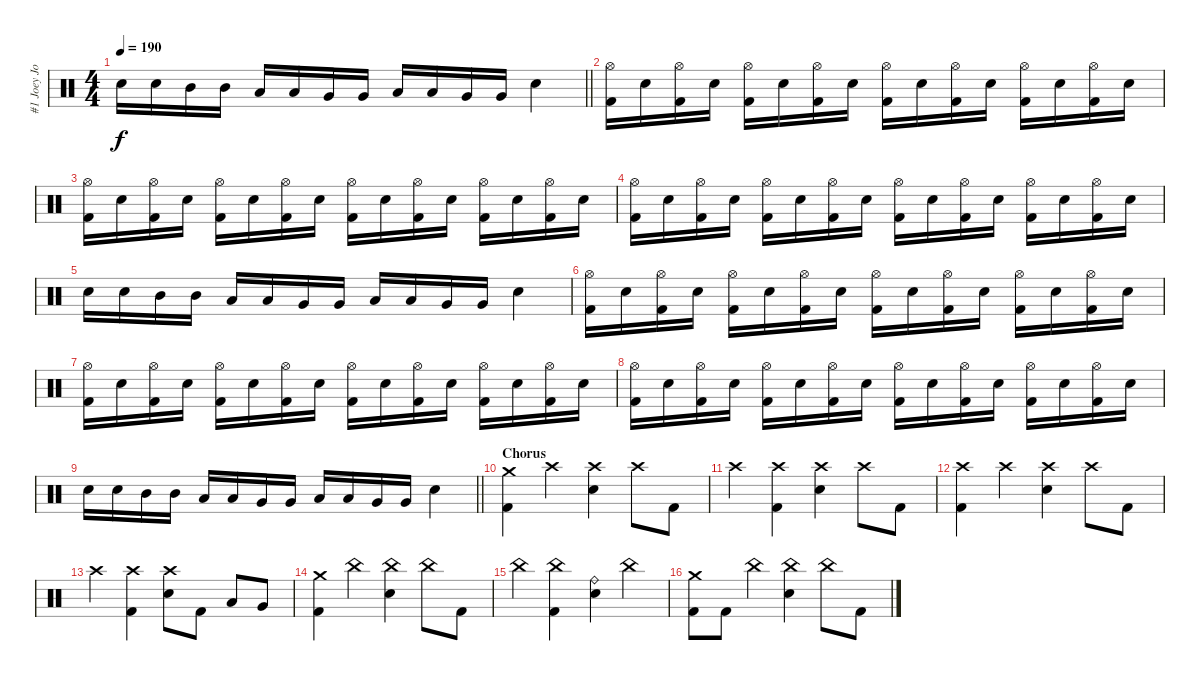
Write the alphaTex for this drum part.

\track ("#1 Joey Jordison" "#1 Joey Jo") {instrument percussion}
\staff {score}
\articulation defaults
\ts (4 4)
\tempo 190
\clef neutral
\barLineRight lightlight
\ks c "Electric Snare (hit)".16{dy f} "Electric Snare (hit)".16 "Mid Tom (hit)".16 "Mid Tom (hit)".16 "Low Tom (hit)".16 "Low Tom (hit)".16 "Very Low Tom (hit)".16 "Very Low Tom (hit)".16 "Low Floor Tom (hit)".16 "Low Floor Tom (hit)".16 "Very Low Tom (hit)".16 "Very Low Tom (hit)".16 "Electric Snare (hit)".4
|
("Hi-Hat (open)" "Kick (hit) 2").16 "Electric Snare (hit)".16 ("Hi-Hat (open)" "Kick (hit) 2").16 "Electric Snare (hit)".16 ("Hi-Hat (open)" "Kick (hit) 2").16 "Electric Snare (hit)".16 ("Hi-Hat (open)" "Kick (hit) 2").16 "Electric Snare (hit)".16 ("Hi-Hat (open)" "Kick (hit) 2").16 "Electric Snare (hit)".16 ("Hi-Hat (open)" "Kick (hit) 2").16 "Electric Snare (hit)".16 ("Hi-Hat (open)" "Kick (hit) 2").16 "Electric Snare (hit)".16 ("Hi-Hat (open)" "Kick (hit) 2").16 "Electric Snare (hit)".16 |
("Hi-Hat (open)" "Kick (hit) 2").16 "Electric Snare (hit)".16 ("Hi-Hat (open)" "Kick (hit) 2").16 "Electric Snare (hit)".16 ("Hi-Hat (open)" "Kick (hit) 2").16 "Electric Snare (hit)".16 ("Hi-Hat (open)" "Kick (hit) 2").16 "Electric Snare (hit)".16 ("Hi-Hat (open)" "Kick (hit) 2").16 "Electric Snare (hit)".16 ("Hi-Hat (open)" "Kick (hit) 2").16 "Electric Snare (hit)".16 ("Hi-Hat (open)" "Kick (hit) 2").16 "Electric Snare (hit)".16 ("Hi-Hat (open)" "Kick (hit) 2").16 "Electric Snare (hit)".16 |
("Hi-Hat (open)" "Kick (hit) 2").16 "Electric Snare (hit)".16 ("Hi-Hat (open)" "Kick (hit) 2").16 "Electric Snare (hit)".16 ("Hi-Hat (open)" "Kick (hit) 2").16 "Electric Snare (hit)".16 ("Hi-Hat (open)" "Kick (hit) 2").16 "Electric Snare (hit)".16 ("Hi-Hat (open)" "Kick (hit) 2").16 "Electric Snare (hit)".16 ("Hi-Hat (open)" "Kick (hit) 2").16 "Electric Snare (hit)".16 ("Hi-Hat (open)" "Kick (hit) 2").16 "Electric Snare (hit)".16 ("Hi-Hat (open)" "Kick (hit) 2").16 "Electric Snare (hit)".16 |
"Electric Snare (hit)".16 "Electric Snare (hit)".16 "Mid Tom (hit)".16 "Mid Tom (hit)".16 "Low Tom (hit)".16 "Low Tom (hit)".16 "Very Low Tom (hit)".16 "Very Low Tom (hit)".16 "Low Floor Tom (hit)".16 "Low Floor Tom (hit)".16 "Very Low Tom (hit)".16 "Very Low Tom (hit)".16 "Electric Snare (hit)".4 |
("Hi-Hat (open)" "Kick (hit) 2").16 "Electric Snare (hit)".16 ("Hi-Hat (open)" "Kick (hit) 2").16 "Electric Snare (hit)".16 ("Hi-Hat (open)" "Kick (hit) 2").16 "Electric Snare (hit)".16 ("Hi-Hat (open)" "Kick (hit) 2").16 "Electric Snare (hit)".16 ("Hi-Hat (open)" "Kick (hit) 2").16 "Electric Snare (hit)".16 ("Hi-Hat (open)" "Kick (hit) 2").16 "Electric Snare (hit)".16 ("Hi-Hat (open)" "Kick (hit) 2").16 "Electric Snare (hit)".16 ("Hi-Hat (open)" "Kick (hit) 2").16 "Electric Snare (hit)".16 |
("Hi-Hat (open)" "Kick (hit) 2").16 "Electric Snare (hit)".16 ("Hi-Hat (open)" "Kick (hit) 2").16 "Electric Snare (hit)".16 ("Hi-Hat (open)" "Kick (hit) 2").16 "Electric Snare (hit)".16 ("Hi-Hat (open)" "Kick (hit) 2").16 "Electric Snare (hit)".16 ("Hi-Hat (open)" "Kick (hit) 2").16 "Electric Snare (hit)".16 ("Hi-Hat (open)" "Kick (hit) 2").16 "Electric Snare (hit)".16 ("Hi-Hat (open)" "Kick (hit) 2").16 "Electric Snare (hit)".16 ("Hi-Hat (open)" "Kick (hit) 2").16 "Electric Snare (hit)".16 |
("Hi-Hat (open)" "Kick (hit) 2").16 "Electric Snare (hit)".16 ("Hi-Hat (open)" "Kick (hit) 2").16 "Electric Snare (hit)".16 ("Hi-Hat (open)" "Kick (hit) 2").16 "Electric Snare (hit)".16 ("Hi-Hat (open)" "Kick (hit) 2").16 "Electric Snare (hit)".16 ("Hi-Hat (open)" "Kick (hit) 2").16 "Electric Snare (hit)".16 ("Hi-Hat (open)" "Kick (hit) 2").16 "Electric Snare (hit)".16 ("Hi-Hat (open)" "Kick (hit) 2").16 "Electric Snare (hit)".16 ("Hi-Hat (open)" "Kick (hit) 2").16 "Electric Snare (hit)".16 |
\barLineRight lightlight "Electric Snare (hit)".16 "Electric Snare (hit)".16 "Mid Tom (hit)".16 "Mid Tom (hit)".16 "Low Tom (hit)".16 "Low Tom (hit)".16 "Very Low Tom (hit)".16 "Very Low Tom (hit)".16 "Low Floor Tom (hit)".16 "Low Floor Tom (hit)".16 "Very Low Tom (hit)".16 "Very Low Tom (hit)".16 "Electric Snare (hit)".4
|
\section ("" "Chorus")
("Crash medium (hit)" "Kick (hit) 2").4 "Crash high (hit)".4 ("Crash high (hit)" "Electric Snare (hit)").4 "Crash high (hit)".8 "Kick (hit) 2".8 |
"Crash high (hit)".4 ("Crash high (hit)" "Kick (hit) 2").4 ("Crash high (hit)" "Electric Snare (hit)").4 "Crash high (hit)".8 "Kick (hit) 2".8 |
("Crash high (hit)" "Kick (hit) 2").4 "Crash high (hit)".4 ("Crash high (hit)" "Electric Snare (hit)").4 "Crash high (hit)".8 "Kick (hit) 2".8 |
"Crash high (hit)".4 ("Crash high (hit)" "Kick (hit) 2").4 ("Crash high (hit)" "Electric Snare (hit)").8 "Kick (hit) 2".8 "Low Tom (hit)".8 "Very Low Tom (hit)".8 |
("Crash medium (hit)" "Kick (hit) 2").4 "China (hit)".4 ("China (hit)" "Electric Snare (hit)").4 "China (hit)".8 "Kick (hit) 2".8 |
"China (hit)".4 ("China (hit)" "Kick (hit) 2").4 ("Ride (bell)" "Electric Snare (hit)").4 "China (hit)".4 |
("Crash medium (hit)" "Kick (hit) 2").8 "Kick (hit) 2".8 "China (hit)".4 ("China (hit)" "Electric Snare (hit)").4 "China (hit)".8 "Kick (hit) 2".8
